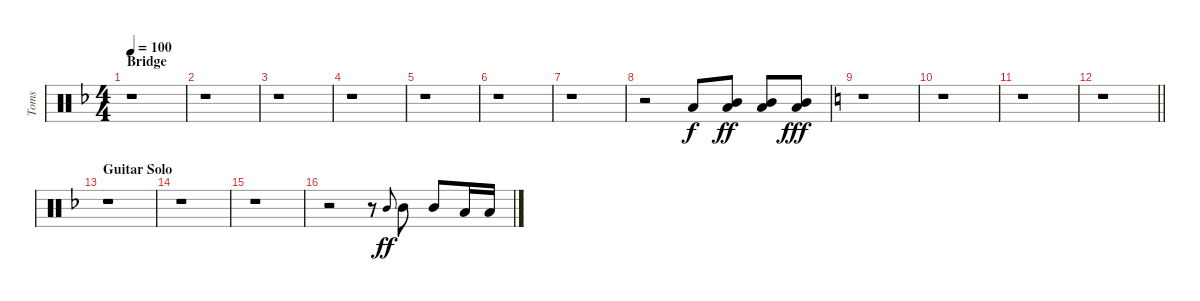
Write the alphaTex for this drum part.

\track ("Toms" "Toms") {instrument percussion}
\staff {score}
\articulation defaults
\ts (4 4)
\section ("" "Bridge")
\tempo 100
\clef neutral
\ks dminor
r.1{dy fff} |
r.1 |
r.1 |
r.1 |
r.1 |
r.1 |
r.1 |
r.2 "Low Tom (hit)".8{dy f balance 6} ("Low Tom (hit)" "Mid Tom (hit)").8{dy ff} ("Low Tom (hit)" "Mid Tom (hit)").8 ("Low Tom (hit)" "Mid Tom (hit)").8{dy fff} |
\ks aminor
r.1 |
r.1 |
r.1 |
\barLineRight lightlight
r.1 |
\section ("" "Guitar Solo")
\ks dminor
r.1 |
r.1 |
r.1 |
r.2 r.8 "Mid Tom (hit)".8{gr onbeat dy ff} "Mid Tom (hit)".8{balance 8} "Mid Tom (hit)".8 "Low Tom (hit)".16{balance 5} "Low Tom (hit)".16
